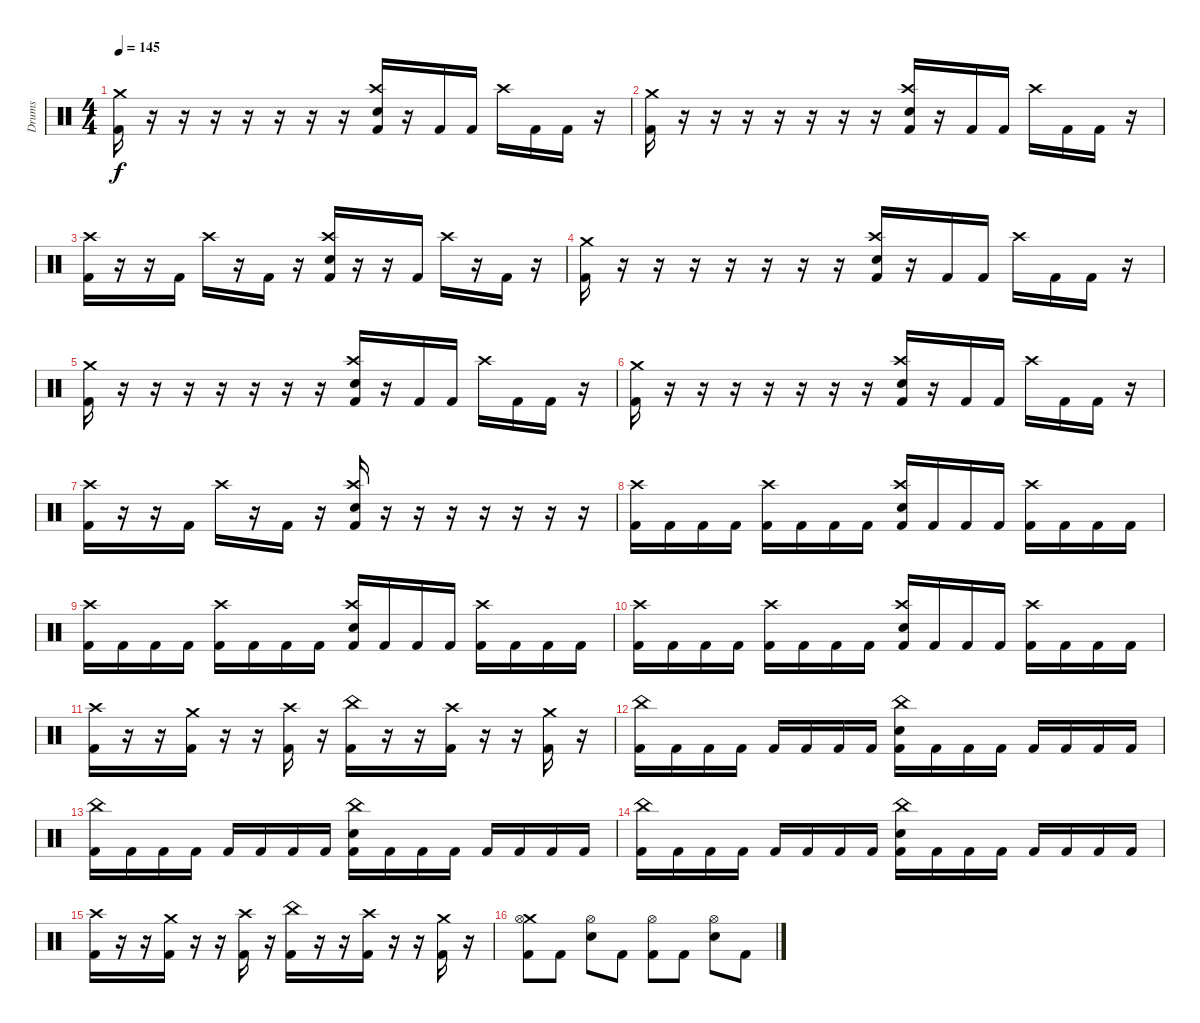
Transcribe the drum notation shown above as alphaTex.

\track ("Drums" "Drums") {instrument percussion}
\staff {score}
\articulation defaults
\ts (4 4)
\tempo 145
\clef neutral
\ks c
("Crash medium (hit)" "Kick (hit) 2").16{dy f} r.16 r.16 r.16 r.16 r.16 r.16 r.16 ("Crash high (hit)" "Electric Snare (hit)" "Kick (hit) 2").16 r.16 "Kick (hit) 2".16 "Kick (hit) 2".16 "Crash high (hit)".16 "Kick (hit) 2".16 "Kick (hit) 2".16 r.16 |
("Crash medium (hit)" "Kick (hit) 2").16 r.16 r.16 r.16 r.16 r.16 r.16 r.16 ("Crash high (hit)" "Electric Snare (hit)" "Kick (hit) 2").16 r.16 "Kick (hit) 2".16 "Kick (hit) 2".16 "Crash high (hit)".16 "Kick (hit) 2".16 "Kick (hit) 2".16 r.16 |
("Crash high (hit)" "Kick (hit) 2").16 r.16 r.16 "Kick (hit) 2".16 "Crash high (hit)".16 r.16 "Kick (hit) 2".16 r.16 ("Crash high (hit)" "Electric Snare (hit)" "Kick (hit) 2").16 r.16 r.16 "Kick (hit) 2".16 "Crash high (hit)".16 r.16 "Kick (hit) 2".16 r.16 |
("Crash medium (hit)" "Kick (hit) 2").16 r.16 r.16 r.16 r.16 r.16 r.16 r.16 ("Crash high (hit)" "Electric Snare (hit)" "Kick (hit) 2").16 r.16 "Kick (hit) 2".16 "Kick (hit) 2".16 "Crash high (hit)".16 "Kick (hit) 2".16 "Kick (hit) 2".16 r.16 |
("Crash medium (hit)" "Kick (hit) 2").16 r.16 r.16 r.16 r.16 r.16 r.16 r.16 ("Crash high (hit)" "Electric Snare (hit)" "Kick (hit) 2").16 r.16 "Kick (hit) 2".16 "Kick (hit) 2".16 "Crash high (hit)".16 "Kick (hit) 2".16 "Kick (hit) 2".16 r.16 |
("Crash medium (hit)" "Kick (hit) 2").16 r.16 r.16 r.16 r.16 r.16 r.16 r.16 ("Crash high (hit)" "Electric Snare (hit)" "Kick (hit) 2").16 r.16 "Kick (hit) 2".16 "Kick (hit) 2".16 "Crash high (hit)".16 "Kick (hit) 2".16 "Kick (hit) 2".16 r.16 |
("Crash high (hit)" "Kick (hit) 2").16 r.16 r.16 "Kick (hit) 2".16 "Crash high (hit)".16 r.16 "Kick (hit) 2".16 r.16 ("Crash high (hit)" "Electric Snare (hit)" "Kick (hit) 2").16 r.16 r.16 r.16 r.16 r.16 r.16 r.16 |
("Crash high (hit)" "Kick (hit) 2").16 "Kick (hit) 2".16 "Kick (hit) 2".16 "Kick (hit) 2".16 ("Crash high (hit)" "Kick (hit) 2").16 "Kick (hit) 2".16 "Kick (hit) 2".16 "Kick (hit) 2".16 ("Crash high (hit)" "Electric Snare (hit)" "Kick (hit) 2").16 "Kick (hit) 2".16 "Kick (hit) 2".16 "Kick (hit) 2".16 ("Crash high (hit)" "Kick (hit) 2").16 "Kick (hit) 2".16 "Kick (hit) 2".16 "Kick (hit) 2".16 |
("Crash high (hit)" "Kick (hit) 2").16 "Kick (hit) 2".16 "Kick (hit) 2".16 "Kick (hit) 2".16 ("Crash high (hit)" "Kick (hit) 2").16 "Kick (hit) 2".16 "Kick (hit) 2".16 "Kick (hit) 2".16 ("Crash high (hit)" "Electric Snare (hit)" "Kick (hit) 2").16 "Kick (hit) 2".16 "Kick (hit) 2".16 "Kick (hit) 2".16 ("Crash high (hit)" "Kick (hit) 2").16 "Kick (hit) 2".16 "Kick (hit) 2".16 "Kick (hit) 2".16 |
("Crash high (hit)" "Kick (hit) 2").16 "Kick (hit) 2".16 "Kick (hit) 2".16 "Kick (hit) 2".16 ("Crash high (hit)" "Kick (hit) 2").16 "Kick (hit) 2".16 "Kick (hit) 2".16 "Kick (hit) 2".16 ("Crash high (hit)" "Electric Snare (hit)" "Kick (hit) 2").16 "Kick (hit) 2".16 "Kick (hit) 2".16 "Kick (hit) 2".16 ("Crash high (hit)" "Kick (hit) 2").16 "Kick (hit) 2".16 "Kick (hit) 2".16 "Kick (hit) 2".16 |
("Crash high (hit)" "Kick (hit) 2").16 r.16 r.16 ("Crash medium (hit)" "Kick (hit) 2").16 r.16 r.16 ("Crash high (hit)" "Kick (hit) 2").16 r.16 ("China (hit)" "Kick (hit) 2").16 r.16 r.16 ("Crash high (hit)" "Kick (hit) 2").16 r.16 r.16 ("Crash medium (hit)" "Kick (hit) 2").16 r.16 |
("China (hit)" "Kick (hit) 2").16 "Kick (hit) 2".16 "Kick (hit) 2".16 "Kick (hit) 2".16 "Kick (hit) 2".16 "Kick (hit) 2".16 "Kick (hit) 2".16 "Kick (hit) 2".16 ("China (hit)" "Electric Snare (hit)" "Kick (hit) 2").16 "Kick (hit) 2".16 "Kick (hit) 2".16 "Kick (hit) 2".16 "Kick (hit) 2".16 "Kick (hit) 2".16 "Kick (hit) 2".16 "Kick (hit) 2".16 |
("China (hit)" "Kick (hit) 2").16 "Kick (hit) 2".16 "Kick (hit) 2".16 "Kick (hit) 2".16 "Kick (hit) 2".16 "Kick (hit) 2".16 "Kick (hit) 2".16 "Kick (hit) 2".16 ("China (hit)" "Electric Snare (hit)" "Kick (hit) 2").16 "Kick (hit) 2".16 "Kick (hit) 2".16 "Kick (hit) 2".16 "Kick (hit) 2".16 "Kick (hit) 2".16 "Kick (hit) 2".16 "Kick (hit) 2".16 |
("China (hit)" "Kick (hit) 2").16 "Kick (hit) 2".16 "Kick (hit) 2".16 "Kick (hit) 2".16 "Kick (hit) 2".16 "Kick (hit) 2".16 "Kick (hit) 2".16 "Kick (hit) 2".16 ("China (hit)" "Electric Snare (hit)" "Kick (hit) 2").16 "Kick (hit) 2".16 "Kick (hit) 2".16 "Kick (hit) 2".16 "Kick (hit) 2".16 "Kick (hit) 2".16 "Kick (hit) 2".16 "Kick (hit) 2".16 |
("Crash high (hit)" "Kick (hit) 2").16 r.16 r.16 ("Crash medium (hit)" "Kick (hit) 2").16 r.16 r.16 ("Crash high (hit)" "Kick (hit) 2").16 r.16 ("China (hit)" "Kick (hit) 2").16 r.16 r.16 ("Crash high (hit)" "Kick (hit) 2").16 r.16 r.16 ("Crash medium (hit)" "Kick (hit) 2").16 r.16 |
("Crash medium (hit)" "Hi-Hat (open)" "Kick (hit) 2").8 "Kick (hit) 2".8 ("Hi-Hat (open)" "Electric Snare (hit)").8 "Kick (hit) 2".8 ("Hi-Hat (open)" "Kick (hit) 2").8 "Kick (hit) 2".8 ("Hi-Hat (open)" "Electric Snare (hit)").8 "Kick (hit) 2".8
